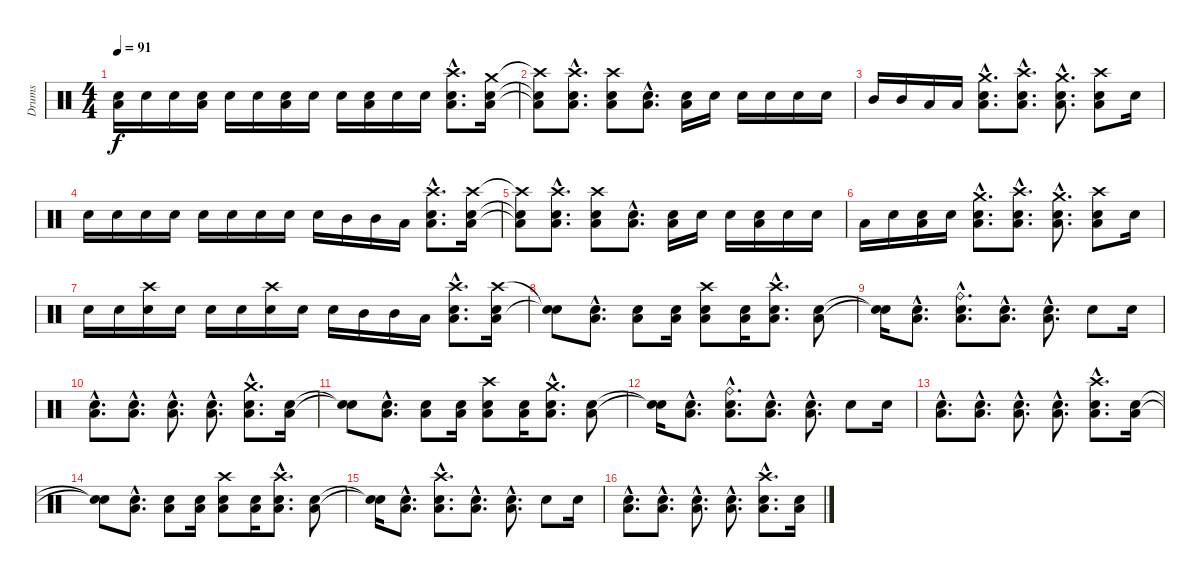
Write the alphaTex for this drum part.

\track ("Drums" "Drums") {instrument percussion}
\staff {score}
\articulation defaults
\ts (4 4)
\tempo 91
\clef neutral
\ks c
("Low Tom (hit)" "Electric Snare (hit)").16{dy f} "Electric Snare (hit)".16 "Electric Snare (hit)".16 ("Low Tom (hit)" "Electric Snare (hit)").16 "Electric Snare (hit)".16 "Electric Snare (hit)".16 ("Low Tom (hit)" "Electric Snare (hit)").16 "Electric Snare (hit)".16 "Electric Snare (hit)".16 ("Low Tom (hit)" "Electric Snare (hit)").16 "Electric Snare (hit)".16 "Electric Snare (hit)".16 ("Crash high (hit)"{hac} "Low Tom (hit)"{hac} "Electric Snare (hit)"{hac}).8{d} ("Crash medium (hit)" "Low Tom (hit)" "Electric Snare (hit)").16 |
("Crash high (hit)"{t} "Low Tom (hit)"{t} "Electric Snare (hit)"{t}).8 ("Crash high (hit)"{hac} "Low Tom (hit)"{hac} "Electric Snare (hit)"{hac}).8{d} ("Crash high (hit)" "Low Tom (hit)" "Electric Snare (hit)").8 ("Low Tom (hit)"{hac} "Electric Snare (hit)"{hac}).8{d} ("Low Tom (hit)" "Electric Snare (hit)").16 "Electric Snare (hit)".16 "Electric Snare (hit)".16 "Electric Snare (hit)".16 "Electric Snare (hit)".16 "Electric Snare (hit)".16 |
"Mid Tom (hit)".16 "Mid Tom (hit)".16 "Low Tom (hit)".16 "Low Tom (hit)".16 ("Crash medium (hit)"{hac} "Low Tom (hit)"{hac} "Electric Snare (hit)"{hac}).8{d} ("Crash high (hit)"{hac} "Low Tom (hit)"{hac} "Electric Snare (hit)"{hac}).8{d} ("Crash medium (hit)"{hac} "Low Tom (hit)"{hac} "Electric Snare (hit)"{hac}).8{d} ("Crash high (hit)" "Low Tom (hit)" "Electric Snare (hit)").8 "Electric Snare (hit)".16 |
"Electric Snare (hit)".16 "Electric Snare (hit)".16 "Electric Snare (hit)".16 "Electric Snare (hit)".16 "Electric Snare (hit)".16 "Electric Snare (hit)".16 "Electric Snare (hit)".16 "Electric Snare (hit)".16 "Electric Snare (hit)".16 "Mid Tom (hit)".16 "Mid Tom (hit)".16 "Low Tom (hit)".16 ("Crash high (hit)"{hac} "Low Tom (hit)"{hac} "Electric Snare (hit)"{hac}).8{d} ("Crash high (hit)" "Low Tom (hit)" "Electric Snare (hit)").16 |
("Crash high (hit)"{t} "Low Tom (hit)"{t} "Electric Snare (hit)"{t}).8 ("Crash high (hit)"{hac} "Low Tom (hit)"{hac} "Electric Snare (hit)"{hac}).8{d} ("Crash high (hit)" "Low Tom (hit)" "Electric Snare (hit)").8 ("Low Tom (hit)"{hac} "Electric Snare (hit)"{hac}).8{d} ("Low Tom (hit)" "Electric Snare (hit)").16 "Electric Snare (hit)".16 "Electric Snare (hit)".16 ("Low Tom (hit)" "Electric Snare (hit)").16 "Electric Snare (hit)".16 "Electric Snare (hit)".16 |
"Low Tom (hit)".16 "Electric Snare (hit)".16 ("Low Tom (hit)" "Electric Snare (hit)").16 "Electric Snare (hit)".16 ("Crash medium (hit)"{hac} "Low Tom (hit)"{hac} "Electric Snare (hit)"{hac}).8{d} ("Crash high (hit)"{hac} "Low Tom (hit)"{hac} "Electric Snare (hit)"{hac}).8{d} ("Crash medium (hit)"{hac} "Low Tom (hit)"{hac} "Electric Snare (hit)"{hac}).8{d} ("Crash high (hit)" "Low Tom (hit)" "Electric Snare (hit)").8 "Electric Snare (hit)".16 |
"Electric Snare (hit)".16 "Electric Snare (hit)".16 ("Crash high (hit)" "Electric Snare (hit)").16 "Electric Snare (hit)".16 "Electric Snare (hit)".16 "Electric Snare (hit)".16 ("Crash high (hit)" "Electric Snare (hit)").16 "Electric Snare (hit)".16 "Electric Snare (hit)".16 "Mid Tom (hit)".16 "Mid Tom (hit)".16 "Low Tom (hit)".16 ("Crash high (hit)"{hac} "Low Tom (hit)"{hac} "Electric Snare (hit)"{hac}).8{d} ("Crash high (hit)" "Low Tom (hit)" "Electric Snare (hit)").16 |
("Snare (hit)"{t} "Snare (hit)"{t}).8 ("Low Tom (hit)"{hac} "Electric Snare (hit)"{hac}).8{d} ("Low Tom (hit)" "Electric Snare (hit)").8 ("Low Tom (hit)" "Electric Snare (hit)").16 ("Crash high (hit)" "Low Tom (hit)" "Electric Snare (hit)").8 ("Low Tom (hit)" "Electric Snare (hit)").16 ("Crash high (hit)"{hac} "Low Tom (hit)"{hac} "Electric Snare (hit)"{hac}).8{d} ("Low Tom (hit)" "Electric Snare (hit)").8 |
("Snare (hit)"{t} "Snare (hit)"{t}).16 ("Low Tom (hit)"{hac} "Electric Snare (hit)"{hac}).8{d} ("Ride (bell)"{hac} "Low Tom (hit)"{hac} "Electric Snare (hit)"{hac}).8{d} ("Low Tom (hit)"{hac} "Electric Snare (hit)"{hac}).8{d} ("Low Tom (hit)"{hac} "Electric Snare (hit)"{hac}).8{d} "Electric Snare (hit)".8 "Electric Snare (hit)".16 |
("Low Tom (hit)"{hac} "Electric Snare (hit)"{hac}).8{d} ("Low Tom (hit)"{hac} "Electric Snare (hit)"{hac}).8{d} ("Low Tom (hit)"{hac} "Electric Snare (hit)"{hac}).8{d} ("Low Tom (hit)"{hac} "Electric Snare (hit)"{hac}).8{d} ("Crash medium (hit)"{hac} "Low Tom (hit)"{hac} "Electric Snare (hit)"{hac}).8{d} ("Low Tom (hit)" "Electric Snare (hit)").16 |
("Snare (hit)"{t} "Snare (hit)"{t}).8 ("Low Tom (hit)"{hac} "Electric Snare (hit)"{hac}).8{d} ("Low Tom (hit)" "Electric Snare (hit)").8 ("Low Tom (hit)" "Electric Snare (hit)").16 ("Crash high (hit)" "Low Tom (hit)" "Electric Snare (hit)").8 ("Low Tom (hit)" "Electric Snare (hit)").16 ("Crash medium (hit)"{hac} "Low Tom (hit)"{hac} "Electric Snare (hit)"{hac}).8{d} ("Low Tom (hit)" "Electric Snare (hit)").8 |
("Snare (hit)"{t} "Snare (hit)"{t}).16 ("Low Tom (hit)"{hac} "Electric Snare (hit)"{hac}).8{d} ("Ride (bell)"{hac} "Low Tom (hit)"{hac} "Electric Snare (hit)"{hac}).8{d} ("Low Tom (hit)"{hac} "Electric Snare (hit)"{hac}).8{d} ("Low Tom (hit)"{hac} "Electric Snare (hit)"{hac}).8{d} "Electric Snare (hit)".8 "Electric Snare (hit)".16 |
("Low Tom (hit)"{hac} "Electric Snare (hit)"{hac}).8{d} ("Low Tom (hit)"{hac} "Electric Snare (hit)"{hac}).8{d} ("Low Tom (hit)"{hac} "Electric Snare (hit)"{hac}).8{d} ("Low Tom (hit)"{hac} "Electric Snare (hit)"{hac}).8{d} ("Crash high (hit)"{hac} "Low Tom (hit)"{hac} "Electric Snare (hit)"{hac}).8{d} ("Low Tom (hit)" "Electric Snare (hit)").16 |
("Snare (hit)"{t} "Snare (hit)"{t}).8 ("Low Tom (hit)"{hac} "Electric Snare (hit)"{hac}).8{d} ("Low Tom (hit)" "Electric Snare (hit)").8 ("Low Tom (hit)" "Electric Snare (hit)").16 ("Crash high (hit)" "Low Tom (hit)" "Electric Snare (hit)").8 ("Low Tom (hit)" "Electric Snare (hit)").16 ("Crash high (hit)"{hac} "Low Tom (hit)"{hac} "Electric Snare (hit)"{hac}).8{d} ("Low Tom (hit)" "Electric Snare (hit)").8 |
("Snare (hit)"{t} "Snare (hit)"{t}).16 ("Low Tom (hit)"{hac} "Electric Snare (hit)"{hac}).8{d} ("Crash high (hit)"{hac} "Low Tom (hit)"{hac} "Electric Snare (hit)"{hac}).8{d} ("Low Tom (hit)"{hac} "Electric Snare (hit)"{hac}).8{d} ("Low Tom (hit)"{hac} "Electric Snare (hit)"{hac}).8{d} "Electric Snare (hit)".8 "Electric Snare (hit)".16 |
("Low Tom (hit)"{hac} "Electric Snare (hit)"{hac}).8{d} ("Low Tom (hit)"{hac} "Electric Snare (hit)"{hac}).8{d} ("Low Tom (hit)"{hac} "Electric Snare (hit)"{hac}).8{d} ("Low Tom (hit)"{hac} "Electric Snare (hit)"{hac}).8{d} ("Crash high (hit)"{hac} "Low Tom (hit)"{hac} "Electric Snare (hit)"{hac}).8{d} ("Low Tom (hit)" "Electric Snare (hit)").16
